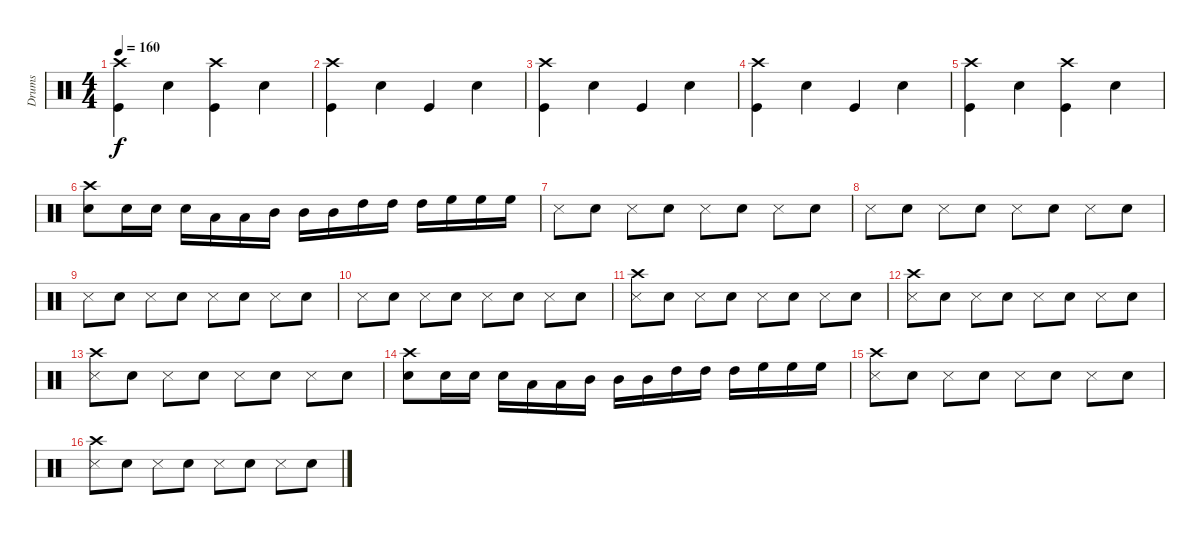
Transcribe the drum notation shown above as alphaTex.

\track ("Drums " "Drums ") {instrument percussion}
\staff {score}
\articulation defaults
\ts (4 4)
\tempo 160
\clef neutral
\ks c
("Crash high (hit)" "Kick (hit)").4{dy f} "Snare (hit) 2".4 ("Crash high (hit)" "Kick (hit)").4 "Snare (hit) 2".4 |
("Crash high (hit)" "Kick (hit)").4 "Snare (hit) 2".4 "Kick (hit)".4 "Snare (hit) 2".4 |
("Crash high (hit)" "Kick (hit)").4 "Snare (hit) 2".4 "Kick (hit)".4 "Snare (hit) 2".4 |
("Crash high (hit)" "Kick (hit)").4 "Snare (hit) 2".4 "Kick (hit)".4 "Snare (hit) 2".4 |
("Crash high (hit)" "Kick (hit)").4 "Snare (hit) 2".4 ("Crash high (hit)" "Kick (hit)").4 "Snare (hit) 2".4 |
("Crash high (hit)" "Snare (hit) 2").8 "Electric Snare (hit)".16 "Electric Snare (hit)".16 "Electric Snare (hit)".16 "Low Tom (hit)".16 "Low Tom (hit)".16 "Mid Tom (hit)".16 "Mid Tom (hit)".16 "Mid Tom (hit)".16 "High Tom (hit)".16 "High Tom (hit)".16 "High Tom (hit)".16 "High Floor Tom (hit)".16 "High Floor Tom (hit)".16 "High Floor Tom (hit)".16 |
"Metronome (hit)".8 "Snare (hit) 2".8 "Metronome (hit)".8 "Snare (hit) 2".8 "Metronome (hit)".8 "Snare (hit) 2".8 "Metronome (hit)".8 "Snare (hit) 2".8 |
"Metronome (hit)".8 "Snare (hit) 2".8 "Metronome (hit)".8 "Snare (hit) 2".8 "Metronome (hit)".8 "Snare (hit) 2".8 "Metronome (hit)".8 "Snare (hit) 2".8 |
"Metronome (hit)".8 "Snare (hit) 2".8 "Metronome (hit)".8 "Snare (hit) 2".8 "Metronome (hit)".8 "Snare (hit) 2".8 "Metronome (hit)".8 "Snare (hit) 2".8 |
"Metronome (hit)".8 "Snare (hit) 2".8 "Metronome (hit)".8 "Snare (hit) 2".8 "Metronome (hit)".8 "Snare (hit) 2".8 "Metronome (hit)".8 "Snare (hit) 2".8 |
("Crash high (hit)" "Metronome (hit)").8 "Snare (hit) 2".8 "Metronome (hit)".8 "Snare (hit) 2".8 "Metronome (hit)".8 "Snare (hit) 2".8 "Metronome (hit)".8 "Snare (hit) 2".8 |
("Crash high (hit)" "Metronome (hit)").8 "Snare (hit) 2".8 "Metronome (hit)".8 "Snare (hit) 2".8 "Metronome (hit)".8 "Snare (hit) 2".8 "Metronome (hit)".8 "Snare (hit) 2".8 |
("Crash high (hit)" "Metronome (hit)").8 "Snare (hit) 2".8 "Metronome (hit)".8 "Snare (hit) 2".8 "Metronome (hit)".8 "Snare (hit) 2".8 "Metronome (hit)".8 "Snare (hit) 2".8 |
("Crash high (hit)" "Snare (hit) 2").8 "Electric Snare (hit)".16 "Electric Snare (hit)".16 "Electric Snare (hit)".16 "Low Tom (hit)".16 "Low Tom (hit)".16 "Mid Tom (hit)".16 "Mid Tom (hit)".16 "Mid Tom (hit)".16 "High Tom (hit)".16 "High Tom (hit)".16 "High Tom (hit)".16 "High Floor Tom (hit)".16 "High Floor Tom (hit)".16 "High Floor Tom (hit)".16 |
("Crash high (hit)" "Metronome (hit)").8 "Snare (hit) 2".8 "Metronome (hit)".8 "Snare (hit) 2".8 "Metronome (hit)".8 "Snare (hit) 2".8 "Metronome (hit)".8 "Snare (hit) 2".8 |
("Crash high (hit)" "Metronome (hit)").8 "Snare (hit) 2".8 "Metronome (hit)".8 "Snare (hit) 2".8 "Metronome (hit)".8 "Snare (hit) 2".8 "Metronome (hit)".8 "Snare (hit) 2".8
